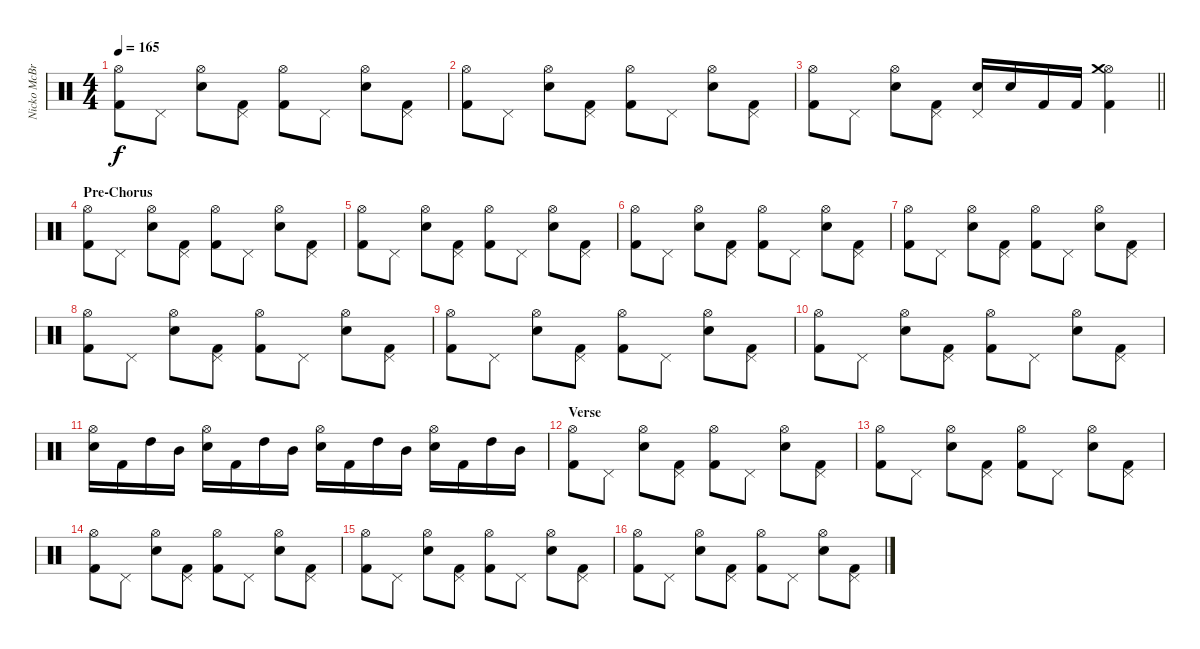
\track ("Nicko McBrain" "Nicko McBr") {instrument percussion}
\staff {score}
\articulation defaults
\ts (4 4)
\tempo 165
\clef neutral
\ks c
("Kick (hit) 2" "Hi-Hat (open)").8{dy f} "Pedal Hi-Hat (hit)".8 ("Snare (hit) 2" "Hi-Hat (open)").8 ("Kick (hit) 2" "Pedal Hi-Hat (hit)").8 ("Kick (hit) 2" "Hi-Hat (open)").8 "Pedal Hi-Hat (hit)".8 ("Snare (hit) 2" "Hi-Hat (open)").8 ("Kick (hit) 2" "Pedal Hi-Hat (hit)").8 |
("Kick (hit) 2" "Hi-Hat (open)").8 "Pedal Hi-Hat (hit)".8 ("Snare (hit) 2" "Hi-Hat (open)").8 ("Kick (hit) 2" "Pedal Hi-Hat (hit)").8 ("Kick (hit) 2" "Hi-Hat (open)").8 "Pedal Hi-Hat (hit)".8 ("Snare (hit) 2" "Hi-Hat (open)").8 ("Kick (hit) 2" "Pedal Hi-Hat (hit)").8 |
\barLineRight lightlight
("Kick (hit) 2" "Hi-Hat (open)").8 "Pedal Hi-Hat (hit)".8 ("Snare (hit) 2" "Hi-Hat (open)").8 ("Kick (hit) 2" "Pedal Hi-Hat (hit)").8 ("Snare (hit) 2" "Pedal Hi-Hat (hit)").16 "Snare (hit) 2".16 "Kick (hit) 2".16 "Kick (hit) 2".16 ("Kick (hit) 2" "Hi-Hat (open)" "Crash medium (hit)").4 |
\section ("" "Pre-Chorus")
("Kick (hit) 2" "Hi-Hat (open)").8 "Pedal Hi-Hat (hit)".8 ("Snare (hit) 2" "Hi-Hat (open)").8 ("Kick (hit) 2" "Pedal Hi-Hat (hit)").8 ("Kick (hit) 2" "Hi-Hat (open)").8 "Pedal Hi-Hat (hit)".8 ("Snare (hit) 2" "Hi-Hat (open)").8 ("Kick (hit) 2" "Pedal Hi-Hat (hit)").8 |
("Kick (hit) 2" "Hi-Hat (open)").8 "Pedal Hi-Hat (hit)".8 ("Snare (hit) 2" "Hi-Hat (open)").8 ("Kick (hit) 2" "Pedal Hi-Hat (hit)").8 ("Kick (hit) 2" "Hi-Hat (open)").8 "Pedal Hi-Hat (hit)".8 ("Snare (hit) 2" "Hi-Hat (open)").8 ("Kick (hit) 2" "Pedal Hi-Hat (hit)").8 |
("Kick (hit) 2" "Hi-Hat (open)").8 "Pedal Hi-Hat (hit)".8 ("Snare (hit) 2" "Hi-Hat (open)").8 ("Kick (hit) 2" "Pedal Hi-Hat (hit)").8 ("Kick (hit) 2" "Hi-Hat (open)").8 "Pedal Hi-Hat (hit)".8 ("Snare (hit) 2" "Hi-Hat (open)").8 ("Kick (hit) 2" "Pedal Hi-Hat (hit)").8 |
("Kick (hit) 2" "Hi-Hat (open)").8 "Pedal Hi-Hat (hit)".8 ("Snare (hit) 2" "Hi-Hat (open)").8 ("Kick (hit) 2" "Pedal Hi-Hat (hit)").8 ("Kick (hit) 2" "Hi-Hat (open)").8 "Pedal Hi-Hat (hit)".8 ("Snare (hit) 2" "Hi-Hat (open)").8 ("Kick (hit) 2" "Pedal Hi-Hat (hit)").8 |
("Kick (hit) 2" "Hi-Hat (open)").8 "Pedal Hi-Hat (hit)".8 ("Snare (hit) 2" "Hi-Hat (open)").8 ("Kick (hit) 2" "Pedal Hi-Hat (hit)").8 ("Kick (hit) 2" "Hi-Hat (open)").8 "Pedal Hi-Hat (hit)".8 ("Snare (hit) 2" "Hi-Hat (open)").8 ("Kick (hit) 2" "Pedal Hi-Hat (hit)").8 |
("Kick (hit) 2" "Hi-Hat (open)").8 "Pedal Hi-Hat (hit)".8 ("Snare (hit) 2" "Hi-Hat (open)").8 ("Kick (hit) 2" "Pedal Hi-Hat (hit)").8 ("Kick (hit) 2" "Hi-Hat (open)").8 "Pedal Hi-Hat (hit)".8 ("Snare (hit) 2" "Hi-Hat (open)").8 ("Kick (hit) 2" "Pedal Hi-Hat (hit)").8 |
("Kick (hit) 2" "Hi-Hat (open)").8 "Pedal Hi-Hat (hit)".8 ("Snare (hit) 2" "Hi-Hat (open)").8 ("Kick (hit) 2" "Pedal Hi-Hat (hit)").8 ("Kick (hit) 2" "Hi-Hat (open)").8 "Pedal Hi-Hat (hit)".8 ("Snare (hit) 2" "Hi-Hat (open)").8 ("Kick (hit) 2" "Pedal Hi-Hat (hit)").8 |
("Snare (hit) 2" "Hi-Hat (open)").16 "Kick (hit) 2".16 "High Tom (hit)".16 "Mid Tom (hit)".16 ("Snare (hit) 2" "Hi-Hat (open)").16 "Kick (hit) 2".16 "High Tom (hit)".16 "Mid Tom (hit)".16 ("Snare (hit) 2" "Hi-Hat (open)").16 "Kick (hit) 2".16 "High Tom (hit)".16 "Mid Tom (hit)".16 ("Snare (hit) 2" "Hi-Hat (open)").16 "Kick (hit) 2".16 "High Tom (hit)".16 "Mid Tom (hit)".16 |
\section ("" "Verse")
("Kick (hit) 2" "Hi-Hat (open)").8 "Pedal Hi-Hat (hit)".8 ("Snare (hit) 2" "Hi-Hat (open)").8 ("Kick (hit) 2" "Pedal Hi-Hat (hit)").8 ("Kick (hit) 2" "Hi-Hat (open)").8 "Pedal Hi-Hat (hit)".8 ("Snare (hit) 2" "Hi-Hat (open)").8 ("Kick (hit) 2" "Pedal Hi-Hat (hit)").8 |
("Kick (hit) 2" "Hi-Hat (open)").8 "Pedal Hi-Hat (hit)".8 ("Snare (hit) 2" "Hi-Hat (open)").8 ("Kick (hit) 2" "Pedal Hi-Hat (hit)").8 ("Kick (hit) 2" "Hi-Hat (open)").8 "Pedal Hi-Hat (hit)".8 ("Snare (hit) 2" "Hi-Hat (open)").8 ("Kick (hit) 2" "Pedal Hi-Hat (hit)").8 |
("Kick (hit) 2" "Hi-Hat (open)").8 "Pedal Hi-Hat (hit)".8 ("Snare (hit) 2" "Hi-Hat (open)").8 ("Kick (hit) 2" "Pedal Hi-Hat (hit)").8 ("Kick (hit) 2" "Hi-Hat (open)").8 "Pedal Hi-Hat (hit)".8 ("Snare (hit) 2" "Hi-Hat (open)").8 ("Kick (hit) 2" "Pedal Hi-Hat (hit)").8 |
("Kick (hit) 2" "Hi-Hat (open)").8 "Pedal Hi-Hat (hit)".8 ("Snare (hit) 2" "Hi-Hat (open)").8 ("Kick (hit) 2" "Pedal Hi-Hat (hit)").8 ("Kick (hit) 2" "Hi-Hat (open)").8 "Pedal Hi-Hat (hit)".8 ("Snare (hit) 2" "Hi-Hat (open)").8 ("Kick (hit) 2" "Pedal Hi-Hat (hit)").8 |
("Kick (hit) 2" "Hi-Hat (open)").8 "Pedal Hi-Hat (hit)".8 ("Snare (hit) 2" "Hi-Hat (open)").8 ("Kick (hit) 2" "Pedal Hi-Hat (hit)").8 ("Kick (hit) 2" "Hi-Hat (open)").8 "Pedal Hi-Hat (hit)".8 ("Snare (hit) 2" "Hi-Hat (open)").8 ("Kick (hit) 2" "Pedal Hi-Hat (hit)").8
